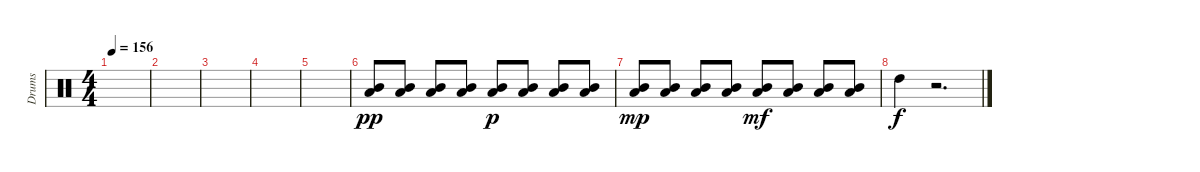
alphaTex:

\track ("Drums" "Drums") {instrument percussion}
\staff {score}
\articulation defaults
\ts (4 4)
\tempo 156
\clef neutral
\ks c
|
|
|
|
|
("Mid Tom (hit)" "Low Tom (hit)").8{dy pp} ("Mid Tom (hit)" "Low Tom (hit)").8 ("Mid Tom (hit)" "Low Tom (hit)").8 ("Mid Tom (hit)" "Low Tom (hit)").8 ("Mid Tom (hit)" "Low Tom (hit)").8{dy p} ("Mid Tom (hit)" "Low Tom (hit)").8 ("Mid Tom (hit)" "Low Tom (hit)").8 ("Mid Tom (hit)" "Low Tom (hit)").8 |
("Mid Tom (hit)" "Low Tom (hit)").8{dy mp} ("Mid Tom (hit)" "Low Tom (hit)").8 ("Mid Tom (hit)" "Low Tom (hit)").8 ("Mid Tom (hit)" "Low Tom (hit)").8 ("Mid Tom (hit)" "Low Tom (hit)").8{dy mf} ("Mid Tom (hit)" "Low Tom (hit)").8 ("Mid Tom (hit)" "Low Tom (hit)").8 ("Mid Tom (hit)" "Low Tom (hit)").8 |
"High Tom (hit)".4{dy f} r.2{d}
